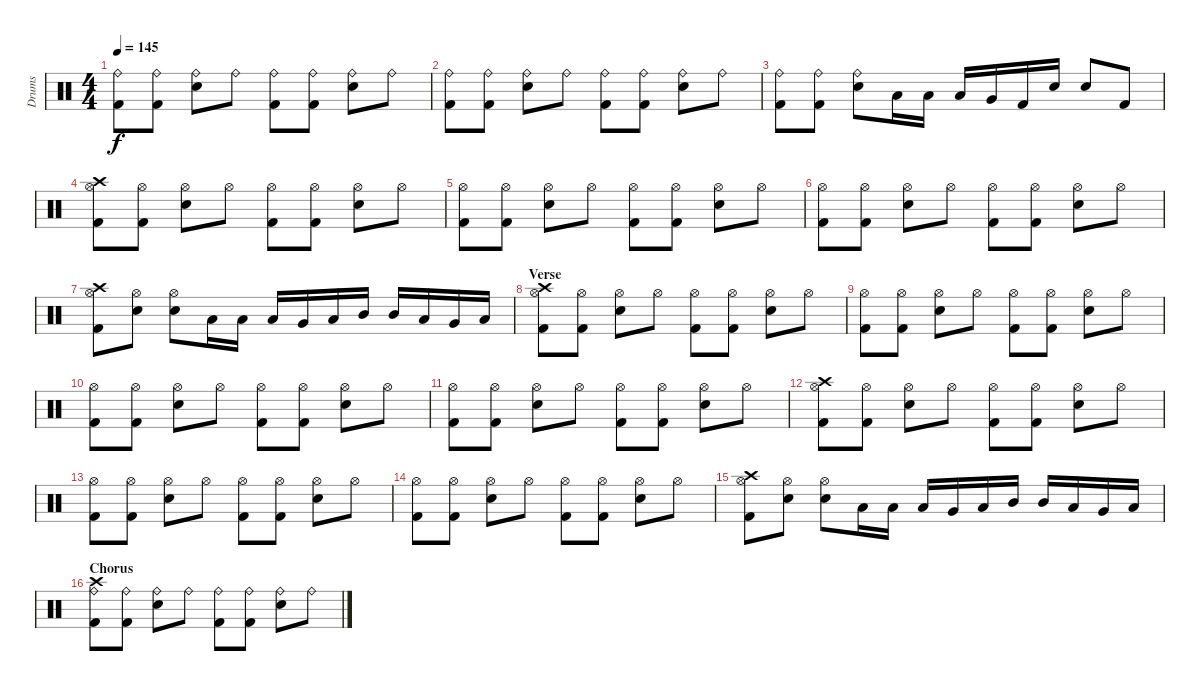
\track ("Drums" "Drums") {instrument percussion}
\staff {score}
\articulation defaults
\ts (4 4)
\tempo 145
\clef neutral
\ks c
("Ride (bell)" "Kick (hit) 2").8{dy f} ("Ride (bell)" "Kick (hit) 2").8 ("Ride (bell)" "Electric Snare (hit)").8 "Ride (bell)".8 ("Ride (bell)" "Kick (hit) 2").8 ("Ride (bell)" "Kick (hit) 2").8 ("Ride (bell)" "Electric Snare (hit)").8 "Ride (bell)".8 |
("Ride (bell)" "Kick (hit) 2").8 ("Ride (bell)" "Kick (hit) 2").8 ("Ride (bell)" "Electric Snare (hit)").8 "Ride (bell)".8 ("Ride (bell)" "Kick (hit) 2").8 ("Ride (bell)" "Kick (hit) 2").8 ("Ride (bell)" "Electric Snare (hit)").8 "Ride (bell)".8 |
("Ride (bell)" "Kick (hit) 2").8 ("Ride (bell)" "Kick (hit) 2").8 ("Ride (bell)" "Electric Snare (hit)").8 "Low Floor Tom (hit)".16 "Low Floor Tom (hit)".16 "Low Floor Tom (hit)".16 "Very Low Tom (hit)".16 "Kick (hit) 2".16 "Electric Snare (hit)".16 "Electric Snare (hit)".8 "Kick (hit) 2".8 |
("Crash high (hit)" "Hi-Hat (open)" "Kick (hit) 2").8 ("Hi-Hat (open)" "Kick (hit) 2").8 ("Hi-Hat (open)" "Electric Snare (hit)").8 "Hi-Hat (open)".8 ("Hi-Hat (open)" "Kick (hit) 2").8 ("Hi-Hat (open)" "Kick (hit) 2").8 ("Hi-Hat (open)" "Electric Snare (hit)").8 "Hi-Hat (open)".8 |
("Hi-Hat (open)" "Kick (hit) 2").8 ("Hi-Hat (open)" "Kick (hit) 2").8 ("Hi-Hat (open)" "Electric Snare (hit)").8 "Hi-Hat (open)".8 ("Hi-Hat (open)" "Kick (hit) 2").8 ("Hi-Hat (open)" "Kick (hit) 2").8 ("Hi-Hat (open)" "Electric Snare (hit)").8 "Hi-Hat (open)".8 |
("Hi-Hat (open)" "Kick (hit) 2").8 ("Hi-Hat (open)" "Kick (hit) 2").8 ("Hi-Hat (open)" "Electric Snare (hit)").8 "Hi-Hat (open)".8 ("Hi-Hat (open)" "Kick (hit) 2").8 ("Hi-Hat (open)" "Kick (hit) 2").8 ("Hi-Hat (open)" "Electric Snare (hit)").8 "Hi-Hat (open)".8 |
("Crash high (hit)" "Hi-Hat (open)" "Kick (hit) 2").8 ("Hi-Hat (open)" "Electric Snare (hit)").8 ("Hi-Hat (open)" "Electric Snare (hit)").8 "Low Floor Tom (hit)".16 "Low Floor Tom (hit)".16 "Low Floor Tom (hit)".16 "Very Low Tom (hit)".16 "Low Tom (hit)".16 "Mid Tom (hit)".16 "Mid Tom (hit)".16 "Low Tom (hit)".16 "Very Low Tom (hit)".16 "Low Floor Tom (hit)".16 |
\section ("" "Verse")
("Crash high (hit)" "Hi-Hat (open)" "Kick (hit) 2").8 ("Hi-Hat (open)" "Kick (hit) 2").8 ("Hi-Hat (open)" "Electric Snare (hit)").8 "Hi-Hat (open)".8 ("Hi-Hat (open)" "Kick (hit) 2").8 ("Hi-Hat (open)" "Kick (hit) 2").8 ("Hi-Hat (open)" "Electric Snare (hit)").8 "Hi-Hat (open)".8 |
("Hi-Hat (open)" "Kick (hit) 2").8 ("Hi-Hat (open)" "Kick (hit) 2").8 ("Hi-Hat (open)" "Electric Snare (hit)").8 "Hi-Hat (open)".8 ("Hi-Hat (open)" "Kick (hit) 2").8 ("Hi-Hat (open)" "Kick (hit) 2").8 ("Hi-Hat (open)" "Electric Snare (hit)").8 "Hi-Hat (open)".8 |
("Hi-Hat (open)" "Kick (hit) 2").8 ("Hi-Hat (open)" "Kick (hit) 2").8 ("Hi-Hat (open)" "Electric Snare (hit)").8 "Hi-Hat (open)".8 ("Hi-Hat (open)" "Kick (hit) 2").8 ("Hi-Hat (open)" "Kick (hit) 2").8 ("Hi-Hat (open)" "Electric Snare (hit)").8 "Hi-Hat (open)".8 |
("Hi-Hat (open)" "Kick (hit) 2").8 ("Hi-Hat (open)" "Kick (hit) 2").8 ("Hi-Hat (open)" "Electric Snare (hit)").8 "Hi-Hat (open)".8 ("Hi-Hat (open)" "Kick (hit) 2").8 ("Hi-Hat (open)" "Kick (hit) 2").8 ("Hi-Hat (open)" "Electric Snare (hit)").8 "Hi-Hat (open)".8 |
("Crash high (hit)" "Hi-Hat (open)" "Kick (hit) 2").8 ("Hi-Hat (open)" "Kick (hit) 2").8 ("Hi-Hat (open)" "Electric Snare (hit)").8 "Hi-Hat (open)".8 ("Hi-Hat (open)" "Kick (hit) 2").8 ("Hi-Hat (open)" "Kick (hit) 2").8 ("Hi-Hat (open)" "Electric Snare (hit)").8 "Hi-Hat (open)".8 |
("Hi-Hat (open)" "Kick (hit) 2").8 ("Hi-Hat (open)" "Kick (hit) 2").8 ("Hi-Hat (open)" "Electric Snare (hit)").8 "Hi-Hat (open)".8 ("Hi-Hat (open)" "Kick (hit) 2").8 ("Hi-Hat (open)" "Kick (hit) 2").8 ("Hi-Hat (open)" "Electric Snare (hit)").8 "Hi-Hat (open)".8 |
("Hi-Hat (open)" "Kick (hit) 2").8 ("Hi-Hat (open)" "Kick (hit) 2").8 ("Hi-Hat (open)" "Electric Snare (hit)").8 "Hi-Hat (open)".8 ("Hi-Hat (open)" "Kick (hit) 2").8 ("Hi-Hat (open)" "Kick (hit) 2").8 ("Hi-Hat (open)" "Electric Snare (hit)").8 "Hi-Hat (open)".8 |
("Crash high (hit)" "Hi-Hat (open)" "Kick (hit) 2").8 ("Hi-Hat (open)" "Electric Snare (hit)").8 ("Hi-Hat (open)" "Electric Snare (hit)").8 "Low Floor Tom (hit)".16 "Low Floor Tom (hit)".16 "Low Floor Tom (hit)".16 "Very Low Tom (hit)".16 "Low Tom (hit)".16 "Mid Tom (hit)".16 "Mid Tom (hit)".16 "Low Tom (hit)".16 "Very Low Tom (hit)".16 "Low Floor Tom (hit)".16 |
\section ("" "Chorus")
("Crash high (hit)" "Ride (bell)" "Kick (hit) 2").8 ("Ride (bell)" "Kick (hit) 2").8 ("Ride (bell)" "Electric Snare (hit)").8 "Ride (bell)".8 ("Ride (bell)" "Kick (hit) 2").8 ("Ride (bell)" "Kick (hit) 2").8 ("Ride (bell)" "Electric Snare (hit)").8 "Ride (bell)".8
